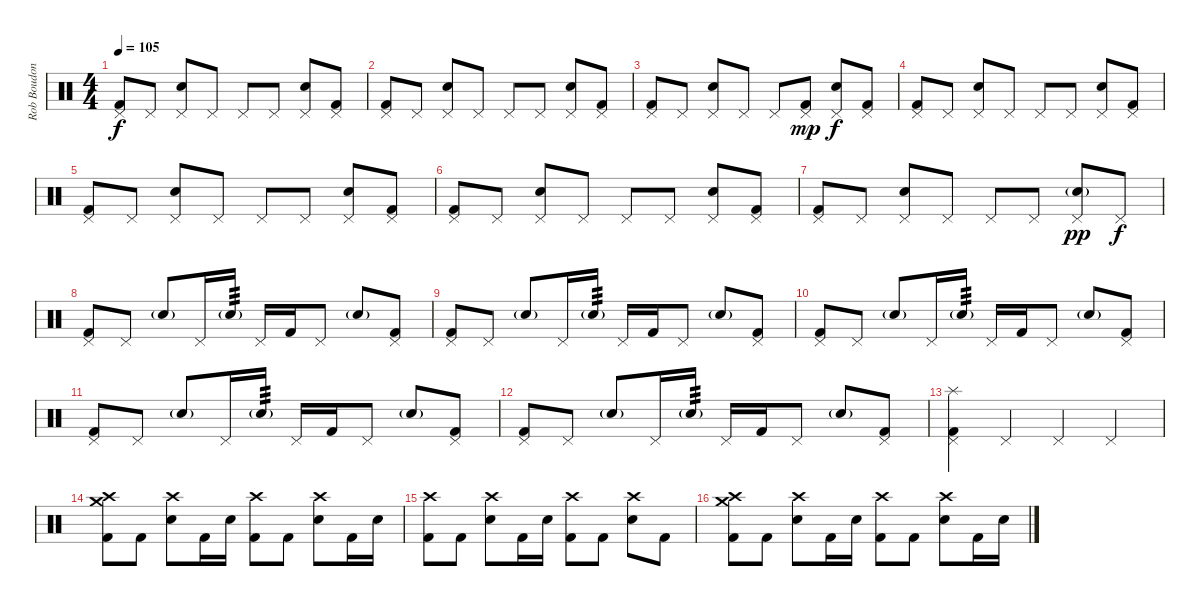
\track ("Rob Boudon [Drums]" "Rob Boudon") {instrument percussion}
\staff {score}
\articulation defaults
\ts (4 4)
\tempo 105
\clef neutral
\ks c
("Pedal Hi-Hat (hit)" "Kick (hit) 2").8{dy f} "Pedal Hi-Hat (hit)".8 ("Pedal Hi-Hat (hit)" "Snare (hit) 2").8 "Pedal Hi-Hat (hit)".8 "Pedal Hi-Hat (hit)".8 "Pedal Hi-Hat (hit)".8 ("Pedal Hi-Hat (hit)" "Snare (hit) 2").8 ("Pedal Hi-Hat (hit)" "Kick (hit) 2").8 |
("Pedal Hi-Hat (hit)" "Kick (hit) 2").8 "Pedal Hi-Hat (hit)".8 ("Pedal Hi-Hat (hit)" "Snare (hit) 2").8 "Pedal Hi-Hat (hit)".8 "Pedal Hi-Hat (hit)".8 "Pedal Hi-Hat (hit)".8 ("Pedal Hi-Hat (hit)" "Snare (hit) 2").8 ("Pedal Hi-Hat (hit)" "Kick (hit) 2").8 |
("Pedal Hi-Hat (hit)" "Kick (hit) 2").8 "Pedal Hi-Hat (hit)".8 ("Pedal Hi-Hat (hit)" "Snare (hit) 2").8 "Pedal Hi-Hat (hit)".8 "Pedal Hi-Hat (hit)".8 ("Pedal Hi-Hat (hit)" "Kick (hit) 2").8{dy mp} ("Pedal Hi-Hat (hit)" "Snare (hit) 2").8{dy f} ("Pedal Hi-Hat (hit)" "Kick (hit) 2").8 |
("Pedal Hi-Hat (hit)" "Kick (hit) 2").8 "Pedal Hi-Hat (hit)".8 ("Pedal Hi-Hat (hit)" "Snare (hit) 2").8 "Pedal Hi-Hat (hit)".8 "Pedal Hi-Hat (hit)".8 "Pedal Hi-Hat (hit)".8 ("Pedal Hi-Hat (hit)" "Snare (hit) 2").8 ("Pedal Hi-Hat (hit)" "Kick (hit) 2").8 |
("Pedal Hi-Hat (hit)" "Kick (hit) 2").8 "Pedal Hi-Hat (hit)".8 ("Pedal Hi-Hat (hit)" "Snare (hit) 2").8 "Pedal Hi-Hat (hit)".8 "Pedal Hi-Hat (hit)".8 "Pedal Hi-Hat (hit)".8 ("Pedal Hi-Hat (hit)" "Snare (hit) 2").8 ("Pedal Hi-Hat (hit)" "Kick (hit) 2").8 |
("Pedal Hi-Hat (hit)" "Kick (hit) 2").8 "Pedal Hi-Hat (hit)".8 ("Pedal Hi-Hat (hit)" "Snare (hit) 2").8 "Pedal Hi-Hat (hit)".8 "Pedal Hi-Hat (hit)".8 "Pedal Hi-Hat (hit)".8 ("Pedal Hi-Hat (hit)" "Snare (hit) 2").8 ("Pedal Hi-Hat (hit)" "Kick (hit) 2").8 |
("Pedal Hi-Hat (hit)" "Kick (hit) 2").8 "Pedal Hi-Hat (hit)".8 ("Pedal Hi-Hat (hit)" "Snare (hit) 2").8 "Pedal Hi-Hat (hit)".8 "Pedal Hi-Hat (hit)".8 "Pedal Hi-Hat (hit)".8 ("Pedal Hi-Hat (hit)" "Electric Snare (hit)"{g}).8{dy pp} "Pedal Hi-Hat (hit)".8{dy f} |
("Pedal Hi-Hat (hit)" "Kick (hit) 2").8 "Pedal Hi-Hat (hit)".8 "Electric Snare (hit)"{g}.8 "Pedal Hi-Hat (hit)".16 "Electric Snare (hit)"{g}.16{tp 3} "Pedal Hi-Hat (hit)".16 "Kick (hit) 2".16 "Pedal Hi-Hat (hit)".8 "Electric Snare (hit)"{g}.8 ("Pedal Hi-Hat (hit)" "Kick (hit) 2").8 |
("Pedal Hi-Hat (hit)" "Kick (hit) 2").8 "Pedal Hi-Hat (hit)".8 "Electric Snare (hit)"{g}.8 "Pedal Hi-Hat (hit)".16 "Electric Snare (hit)"{g}.16{tp 3} "Pedal Hi-Hat (hit)".16 "Kick (hit) 2".16 "Pedal Hi-Hat (hit)".8 "Electric Snare (hit)"{g}.8 ("Pedal Hi-Hat (hit)" "Kick (hit) 2").8 |
("Pedal Hi-Hat (hit)" "Kick (hit) 2").8 "Pedal Hi-Hat (hit)".8 "Electric Snare (hit)"{g}.8 "Pedal Hi-Hat (hit)".16 "Electric Snare (hit)"{g}.16{tp 3} "Pedal Hi-Hat (hit)".16 "Kick (hit) 2".16 "Pedal Hi-Hat (hit)".8 "Electric Snare (hit)"{g}.8 ("Pedal Hi-Hat (hit)" "Kick (hit) 2").8 |
("Pedal Hi-Hat (hit)" "Kick (hit) 2").8 "Pedal Hi-Hat (hit)".8 "Electric Snare (hit)"{g}.8 "Pedal Hi-Hat (hit)".16 "Electric Snare (hit)"{g}.16{tp 3} "Pedal Hi-Hat (hit)".16 "Kick (hit) 2".16 "Pedal Hi-Hat (hit)".8 "Electric Snare (hit)"{g}.8 ("Pedal Hi-Hat (hit)" "Kick (hit) 2").8 |
("Pedal Hi-Hat (hit)" "Kick (hit) 2").8 "Pedal Hi-Hat (hit)".8 "Electric Snare (hit)"{g}.8 "Pedal Hi-Hat (hit)".16 "Electric Snare (hit)"{g}.16{tp 3} "Pedal Hi-Hat (hit)".16 "Kick (hit) 2".16 "Pedal Hi-Hat (hit)".8 "Electric Snare (hit)"{g}.8 ("Pedal Hi-Hat (hit)" "Kick (hit) 2").8 |
("Splash (hit)" "Pedal Hi-Hat (hit)" "Kick (hit) 2").4 "Pedal Hi-Hat (hit)".4 "Pedal Hi-Hat (hit)".4 "Pedal Hi-Hat (hit)".4 |
("Crash medium (hit)" "Crash high (hit)" "Kick (hit) 2").8{volume 16} "Kick (hit) 2".8 ("Crash high (hit)" "Electric Snare (hit)").8 "Kick (hit) 2".16 "Electric Snare (hit)".16 ("Crash high (hit)" "Kick (hit) 2").8 "Kick (hit) 2".8 ("Crash high (hit)" "Electric Snare (hit)").8 "Kick (hit) 2".16 "Electric Snare (hit)".16 |
("Crash high (hit)" "Kick (hit) 2").8 "Kick (hit) 2".8 ("Crash high (hit)" "Electric Snare (hit)").8 "Kick (hit) 2".16 "Electric Snare (hit)".16 ("Crash high (hit)" "Kick (hit) 2").8 "Kick (hit) 2".8 ("Crash high (hit)" "Electric Snare (hit)").8 "Kick (hit) 2".8 |
("Crash medium (hit)" "Crash high (hit)" "Kick (hit) 2").8 "Kick (hit) 2".8 ("Crash high (hit)" "Electric Snare (hit)").8 "Kick (hit) 2".16 "Electric Snare (hit)".16 ("Crash high (hit)" "Kick (hit) 2").8 "Kick (hit) 2".8 ("Crash high (hit)" "Electric Snare (hit)").8 "Kick (hit) 2".16 "Electric Snare (hit)".16
